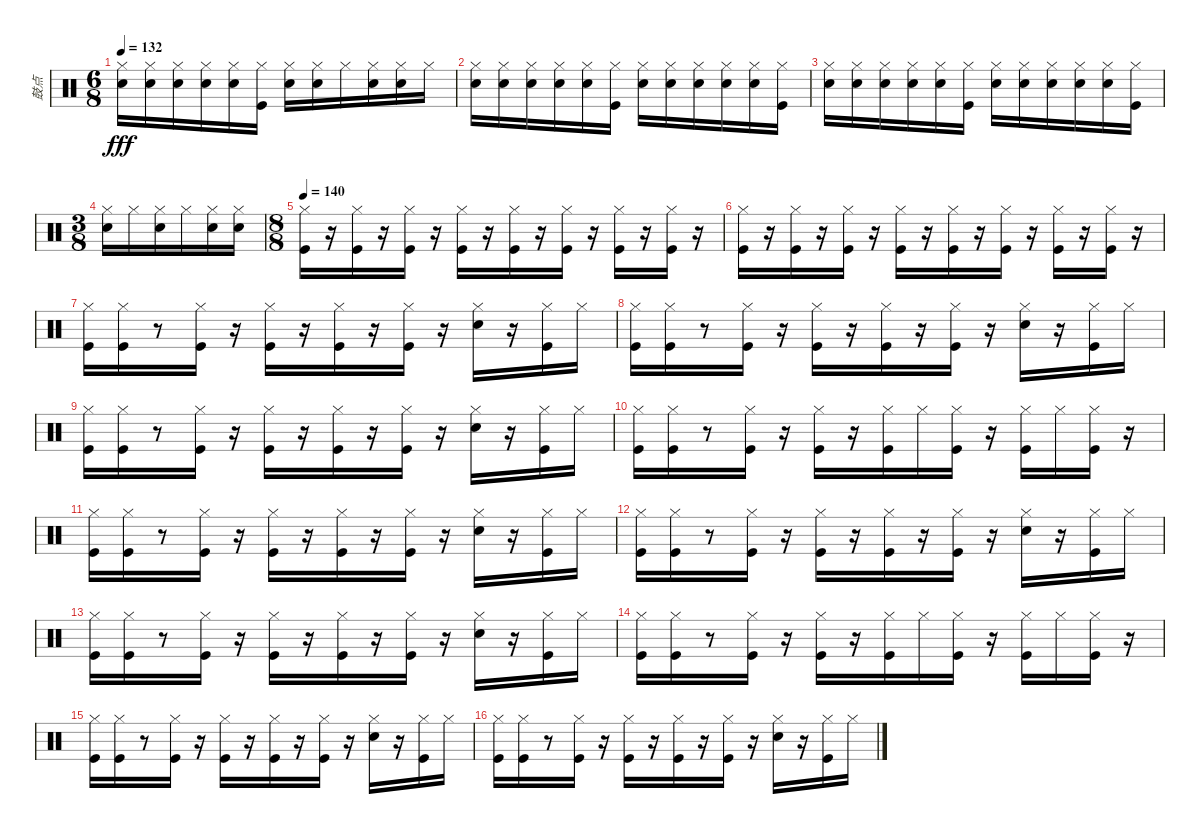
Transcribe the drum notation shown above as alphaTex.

\track ("鼓点" "鼓点") {instrument percussion}
\staff {score}
\articulation defaults
\ts (6 8)
\tempo 132
\clef neutral
\ks c
("Snare (hit) 2" "Hi-Hat (closed)").16{dy fff} ("Snare (hit) 2" "Hi-Hat (closed)").16 ("Snare (hit) 2" "Hi-Hat (closed)").16 ("Snare (hit) 2" "Hi-Hat (closed)").16 ("Snare (hit) 2" "Hi-Hat (closed)").16 ("Kick (hit)" "Hi-Hat (closed)").16 ("Snare (hit) 2" "Hi-Hat (closed)").16 ("Snare (hit) 2" "Hi-Hat (closed)").16 "Hi-Hat (closed)".16 ("Snare (hit) 2" "Hi-Hat (closed)").16 ("Snare (hit) 2" "Hi-Hat (closed)").16 "Hi-Hat (closed)".16 |
("Snare (hit) 2" "Hi-Hat (closed)").16 ("Snare (hit) 2" "Hi-Hat (closed)").16 ("Snare (hit) 2" "Hi-Hat (closed)").16 ("Snare (hit) 2" "Hi-Hat (closed)").16 ("Snare (hit) 2" "Hi-Hat (closed)").16 ("Kick (hit)" "Hi-Hat (closed)").16 ("Snare (hit) 2" "Hi-Hat (closed)").16 ("Snare (hit) 2" "Hi-Hat (closed)").16 ("Snare (hit) 2" "Hi-Hat (closed)").16 ("Snare (hit) 2" "Hi-Hat (closed)").16 ("Snare (hit) 2" "Hi-Hat (closed)").16 ("Kick (hit)" "Hi-Hat (closed)").16 |
("Snare (hit) 2" "Hi-Hat (closed)").16 ("Snare (hit) 2" "Hi-Hat (closed)").16 ("Snare (hit) 2" "Hi-Hat (closed)").16 ("Snare (hit) 2" "Hi-Hat (closed)").16 ("Snare (hit) 2" "Hi-Hat (closed)").16 ("Kick (hit)" "Hi-Hat (closed)").16 ("Snare (hit) 2" "Hi-Hat (closed)").16 ("Snare (hit) 2" "Hi-Hat (closed)").16 ("Snare (hit) 2" "Hi-Hat (closed)").16 ("Snare (hit) 2" "Hi-Hat (closed)").16 ("Snare (hit) 2" "Hi-Hat (closed)").16 ("Kick (hit)" "Hi-Hat (closed)").16 |
\ts (3 8)
("Snare (hit) 2" "Hi-Hat (closed)").16 "Hi-Hat (closed)".16 ("Snare (hit) 2" "Hi-Hat (closed)").16 "Hi-Hat (closed)".16 ("Snare (hit) 2" "Hi-Hat (closed)").16 ("Snare (hit) 2" "Hi-Hat (closed)").16 |
\ts (8 8)
\tempo 140
("Kick (hit)" "Hi-Hat (closed)").16 r.16 ("Kick (hit)" "Hi-Hat (closed)").16 r.16 ("Kick (hit)" "Hi-Hat (closed)").16 r.16 ("Kick (hit)" "Hi-Hat (closed)").16 r.16 ("Kick (hit)" "Hi-Hat (closed)").16 r.16 ("Kick (hit)" "Hi-Hat (closed)").16 r.16 ("Kick (hit)" "Hi-Hat (closed)").16 r.16 ("Kick (hit)" "Hi-Hat (closed)").16 r.16 |
("Kick (hit)" "Hi-Hat (closed)").16 r.16 ("Kick (hit)" "Hi-Hat (closed)").16 r.16 ("Kick (hit)" "Hi-Hat (closed)").16 r.16 ("Kick (hit)" "Hi-Hat (closed)").16 r.16 ("Kick (hit)" "Hi-Hat (closed)").16 r.16 ("Kick (hit)" "Hi-Hat (closed)").16 r.16 ("Kick (hit)" "Hi-Hat (closed)").16 r.16 ("Kick (hit)" "Hi-Hat (closed)").16 r.16 |
("Kick (hit)" "Hi-Hat (closed)").16 ("Kick (hit)" "Hi-Hat (closed)").16 r.8 ("Kick (hit)" "Hi-Hat (closed)").16 r.16 ("Kick (hit)" "Hi-Hat (closed)").16 r.16 ("Kick (hit)" "Hi-Hat (closed)").16 r.16 ("Kick (hit)" "Hi-Hat (closed)").16 r.16 ("Snare (hit) 2" "Hi-Hat (closed)").16 r.16 ("Kick (hit)" "Hi-Hat (closed)").16 "Hi-Hat (closed)".16 |
("Kick (hit)" "Hi-Hat (closed)").16 ("Kick (hit)" "Hi-Hat (closed)").16 r.8 ("Kick (hit)" "Hi-Hat (closed)").16 r.16 ("Kick (hit)" "Hi-Hat (closed)").16 r.16 ("Kick (hit)" "Hi-Hat (closed)").16 r.16 ("Kick (hit)" "Hi-Hat (closed)").16 r.16 ("Snare (hit) 2" "Hi-Hat (closed)").16 r.16 ("Kick (hit)" "Hi-Hat (closed)").16 "Hi-Hat (closed)".16 |
("Kick (hit)" "Hi-Hat (closed)").16 ("Kick (hit)" "Hi-Hat (closed)").16 r.8 ("Kick (hit)" "Hi-Hat (closed)").16 r.16 ("Kick (hit)" "Hi-Hat (closed)").16 r.16 ("Kick (hit)" "Hi-Hat (closed)").16 r.16 ("Kick (hit)" "Hi-Hat (closed)").16 r.16 ("Snare (hit) 2" "Hi-Hat (closed)").16 r.16 ("Kick (hit)" "Hi-Hat (closed)").16 "Hi-Hat (closed)".16 |
("Kick (hit)" "Hi-Hat (closed)").16 ("Kick (hit)" "Hi-Hat (closed)").16 r.8 ("Kick (hit)" "Hi-Hat (closed)").16 r.16 ("Kick (hit)" "Hi-Hat (closed)").16 r.16 ("Kick (hit)" "Hi-Hat (closed)").16 "Hi-Hat (closed)".16 ("Kick (hit)" "Hi-Hat (closed)").16 r.16 ("Kick (hit)" "Hi-Hat (closed)").16 "Hi-Hat (closed)".16 ("Kick (hit)" "Hi-Hat (closed)").16 r.16 |
("Kick (hit)" "Hi-Hat (closed)").16 ("Kick (hit)" "Hi-Hat (closed)").16 r.8 ("Kick (hit)" "Hi-Hat (closed)").16 r.16 ("Kick (hit)" "Hi-Hat (closed)").16 r.16 ("Kick (hit)" "Hi-Hat (closed)").16 r.16 ("Kick (hit)" "Hi-Hat (closed)").16 r.16 ("Snare (hit) 2" "Hi-Hat (closed)").16 r.16 ("Kick (hit)" "Hi-Hat (closed)").16 "Hi-Hat (closed)".16 |
("Kick (hit)" "Hi-Hat (closed)").16 ("Kick (hit)" "Hi-Hat (closed)").16 r.8 ("Kick (hit)" "Hi-Hat (closed)").16 r.16 ("Kick (hit)" "Hi-Hat (closed)").16 r.16 ("Kick (hit)" "Hi-Hat (closed)").16 r.16 ("Kick (hit)" "Hi-Hat (closed)").16 r.16 ("Snare (hit) 2" "Hi-Hat (closed)").16 r.16 ("Kick (hit)" "Hi-Hat (closed)").16 "Hi-Hat (closed)".16 |
("Kick (hit)" "Hi-Hat (closed)").16 ("Kick (hit)" "Hi-Hat (closed)").16 r.8 ("Kick (hit)" "Hi-Hat (closed)").16 r.16 ("Kick (hit)" "Hi-Hat (closed)").16 r.16 ("Kick (hit)" "Hi-Hat (closed)").16 r.16 ("Kick (hit)" "Hi-Hat (closed)").16 r.16 ("Snare (hit) 2" "Hi-Hat (closed)").16 r.16 ("Kick (hit)" "Hi-Hat (closed)").16 "Hi-Hat (closed)".16 |
("Kick (hit)" "Hi-Hat (closed)").16 ("Kick (hit)" "Hi-Hat (closed)").16 r.8 ("Kick (hit)" "Hi-Hat (closed)").16 r.16 ("Kick (hit)" "Hi-Hat (closed)").16 r.16 ("Kick (hit)" "Hi-Hat (closed)").16 "Hi-Hat (closed)".16 ("Kick (hit)" "Hi-Hat (closed)").16 r.16 ("Kick (hit)" "Hi-Hat (closed)").16 "Hi-Hat (closed)".16 ("Kick (hit)" "Hi-Hat (closed)").16 r.16 |
("Kick (hit)" "Hi-Hat (closed)").16 ("Kick (hit)" "Hi-Hat (closed)").16 r.8 ("Kick (hit)" "Hi-Hat (closed)").16 r.16 ("Kick (hit)" "Hi-Hat (closed)").16 r.16 ("Kick (hit)" "Hi-Hat (closed)").16 r.16 ("Kick (hit)" "Hi-Hat (closed)").16 r.16 ("Snare (hit) 2" "Hi-Hat (closed)").16 r.16 ("Kick (hit)" "Hi-Hat (closed)").16 "Hi-Hat (closed)".16 |
("Kick (hit)" "Hi-Hat (closed)").16 ("Kick (hit)" "Hi-Hat (closed)").16 r.8 ("Kick (hit)" "Hi-Hat (closed)").16 r.16 ("Kick (hit)" "Hi-Hat (closed)").16 r.16 ("Kick (hit)" "Hi-Hat (closed)").16 r.16 ("Kick (hit)" "Hi-Hat (closed)").16 r.16 ("Snare (hit) 2" "Hi-Hat (closed)").16 r.16 ("Kick (hit)" "Hi-Hat (closed)").16 "Hi-Hat (closed)".16
